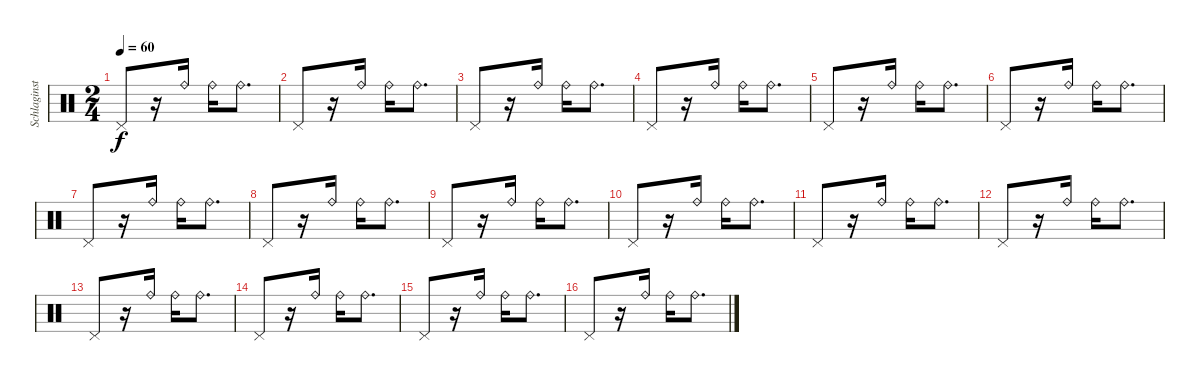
\track ("Schlaginstrumente - Auswahl" "Schlaginst") {instrument percussion}
\staff {score}
\articulation defaults
\ts (2 4)
\tempo 60
\clef neutral
\ks c "Pedal Hi-Hat (hit)".8{dy f}
r.16 "Ride (bell)".16 "Ride (bell)".16 "Ride (bell)".8{d} |
"Pedal Hi-Hat (hit)".8 r.16 "Ride (bell)".16 "Ride (bell)".16 "Ride (bell)".8{d} |
"Pedal Hi-Hat (hit)".8 r.16 "Ride (bell)".16 "Ride (bell)".16 "Ride (bell)".8{d} |
"Pedal Hi-Hat (hit)".8 r.16 "Ride (bell)".16 "Ride (bell)".16 "Ride (bell)".8{d} |
"Pedal Hi-Hat (hit)".8 r.16 "Ride (bell)".16 "Ride (bell)".16 "Ride (bell)".8{d} |
"Pedal Hi-Hat (hit)".8 r.16 "Ride (bell)".16 "Ride (bell)".16 "Ride (bell)".8{d} |
"Pedal Hi-Hat (hit)".8 r.16 "Ride (bell)".16 "Ride (bell)".16 "Ride (bell)".8{d} |
"Pedal Hi-Hat (hit)".8 r.16 "Ride (bell)".16 "Ride (bell)".16 "Ride (bell)".8{d} |
"Pedal Hi-Hat (hit)".8 r.16 "Ride (bell)".16 "Ride (bell)".16 "Ride (bell)".8{d} |
"Pedal Hi-Hat (hit)".8 r.16 "Ride (bell)".16 "Ride (bell)".16 "Ride (bell)".8{d} |
"Pedal Hi-Hat (hit)".8 r.16 "Ride (bell)".16 "Ride (bell)".16 "Ride (bell)".8{d} |
"Pedal Hi-Hat (hit)".8 r.16 "Ride (bell)".16 "Ride (bell)".16 "Ride (bell)".8{d} |
"Pedal Hi-Hat (hit)".8 r.16 "Ride (bell)".16 "Ride (bell)".16 "Ride (bell)".8{d} |
"Pedal Hi-Hat (hit)".8 r.16 "Ride (bell)".16 "Ride (bell)".16 "Ride (bell)".8{d} |
"Pedal Hi-Hat (hit)".8 r.16 "Ride (bell)".16 "Ride (bell)".16 "Ride (bell)".8{d} |
"Pedal Hi-Hat (hit)".8 r.16 "Ride (bell)".16 "Ride (bell)".16 "Ride (bell)".8{d}
